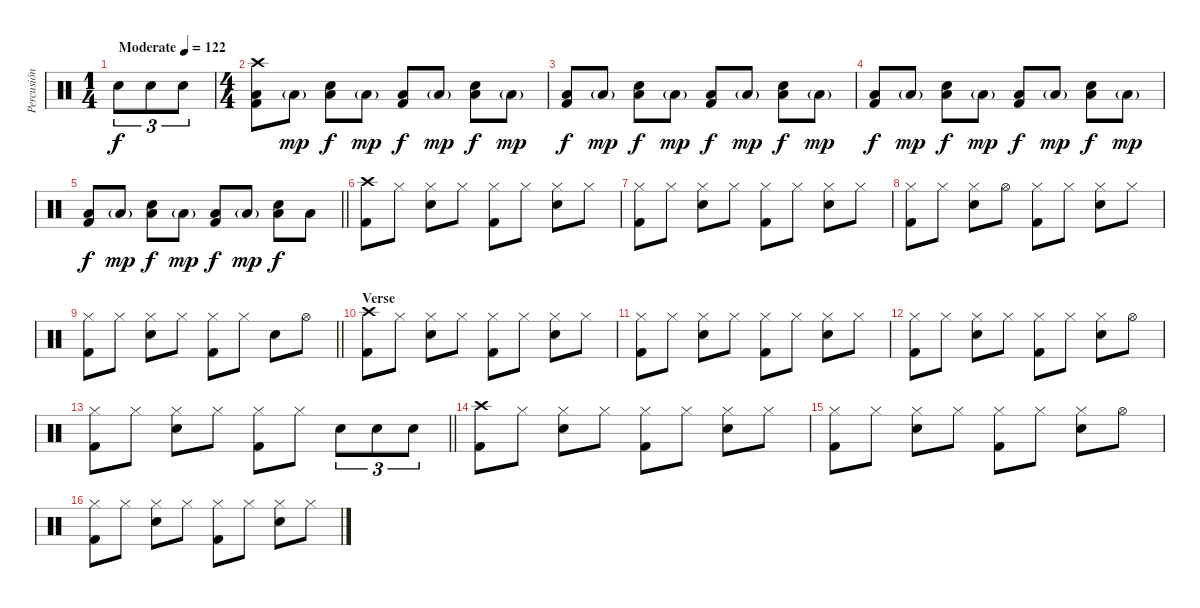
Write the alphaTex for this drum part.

\track ("Percusión" "Percusión") {instrument percussion}
\staff {score}
\articulation defaults
\ts (1 4)
\tempo (122 "Moderate")
\clef neutral
\ks c "Electric Snare (hit)".8{tu (3 2) dy f} "Electric Snare (hit)".8{tu (3 2)} "Electric Snare (hit)".8{tu (3 2)}
|
\ts (4 4)
("Crash high (hit)" "Low Floor Tom (hit)" "Kick (hit) 2").8 "Low Floor Tom (hit)"{g}.8{dy mp} ("Electric Snare (hit)" "Low Floor Tom (hit)").8{dy f} "Low Floor Tom (hit)"{g}.8{dy mp} ("Low Floor Tom (hit)" "Kick (hit) 2").8{dy f} "Low Floor Tom (hit)"{g}.8{dy mp} ("Electric Snare (hit)" "Low Floor Tom (hit)").8{dy f} "Low Floor Tom (hit)"{g}.8{dy mp} |
("Low Floor Tom (hit)" "Kick (hit) 2").8{dy f} "Low Floor Tom (hit)"{g}.8{dy mp} ("Electric Snare (hit)" "Low Floor Tom (hit)").8{dy f} "Low Floor Tom (hit)"{g}.8{dy mp} ("Low Floor Tom (hit)" "Kick (hit) 2").8{dy f} "Low Floor Tom (hit)"{g}.8{dy mp} ("Electric Snare (hit)" "Low Floor Tom (hit)").8{dy f} "Low Floor Tom (hit)"{g}.8{dy mp} |
("Low Floor Tom (hit)" "Kick (hit) 2").8{dy f} "Low Floor Tom (hit)"{g}.8{dy mp} ("Electric Snare (hit)" "Low Floor Tom (hit)").8{dy f} "Low Floor Tom (hit)"{g}.8{dy mp} ("Low Floor Tom (hit)" "Kick (hit) 2").8{dy f} "Low Floor Tom (hit)"{g}.8{dy mp} ("Electric Snare (hit)" "Low Floor Tom (hit)").8{dy f} "Low Floor Tom (hit)"{g}.8{dy mp} |
\barLineRight lightlight
("Low Floor Tom (hit)" "Kick (hit) 2").8{dy f} "Low Floor Tom (hit)"{g}.8{dy mp} ("Electric Snare (hit)" "Low Floor Tom (hit)").8{dy f} "Low Floor Tom (hit)"{g}.8{dy mp} ("Low Floor Tom (hit)" "Kick (hit) 2").8{dy f} "Low Floor Tom (hit)"{g}.8{dy mp} ("Electric Snare (hit)" "Low Floor Tom (hit)").8{dy f} "Low Floor Tom (hit)".8 |
("Crash high (hit)" "Kick (hit) 2").8 "Hi-Hat (closed)".8 ("Hi-Hat (closed)" "Electric Snare (hit)").8 "Hi-Hat (closed)".8 ("Hi-Hat (closed)" "Kick (hit) 2").8 "Hi-Hat (closed)".8 ("Hi-Hat (closed)" "Electric Snare (hit)").8 "Hi-Hat (closed)".8 |
("Hi-Hat (closed)" "Kick (hit) 2").8 "Hi-Hat (closed)".8 ("Hi-Hat (closed)" "Electric Snare (hit)").8 "Hi-Hat (closed)".8 ("Hi-Hat (closed)" "Kick (hit) 2").8 "Hi-Hat (closed)".8 ("Hi-Hat (closed)" "Electric Snare (hit)").8 "Hi-Hat (closed)".8 |
("Hi-Hat (closed)" "Kick (hit) 2").8 "Hi-Hat (closed)".8 ("Hi-Hat (closed)" "Electric Snare (hit)").8 "Hi-Hat (open)".8 ("Hi-Hat (closed)" "Kick (hit) 2").8 "Hi-Hat (closed)".8 ("Hi-Hat (closed)" "Electric Snare (hit)").8 "Hi-Hat (closed)".8 |
\barLineRight lightlight
("Hi-Hat (closed)" "Kick (hit) 2").8 "Hi-Hat (closed)".8 ("Hi-Hat (closed)" "Electric Snare (hit)").8 "Hi-Hat (closed)".8 ("Hi-Hat (closed)" "Kick (hit) 2").8 "Hi-Hat (closed)".8 "Electric Snare (hit)".8 "Hi-Hat (open)".8 |
\section ("" "Verse")
("Crash high (hit)" "Kick (hit) 2").8 "Hi-Hat (closed)".8 ("Hi-Hat (closed)" "Electric Snare (hit)").8 "Hi-Hat (closed)".8 ("Hi-Hat (closed)" "Kick (hit) 2").8 "Hi-Hat (closed)".8 ("Hi-Hat (closed)" "Electric Snare (hit)").8 "Hi-Hat (closed)".8 |
("Hi-Hat (closed)" "Kick (hit) 2").8 "Hi-Hat (closed)".8 ("Hi-Hat (closed)" "Electric Snare (hit)").8 "Hi-Hat (closed)".8 ("Hi-Hat (closed)" "Kick (hit) 2").8 "Hi-Hat (closed)".8 ("Hi-Hat (closed)" "Electric Snare (hit)").8 "Hi-Hat (closed)".8 |
("Hi-Hat (closed)" "Kick (hit) 2").8 "Hi-Hat (closed)".8 ("Hi-Hat (closed)" "Electric Snare (hit)").8 "Hi-Hat (closed)".8 ("Hi-Hat (closed)" "Kick (hit) 2").8 "Hi-Hat (closed)".8 ("Hi-Hat (closed)" "Electric Snare (hit)").8 "Hi-Hat (open)".8 |
\barLineRight lightlight
("Hi-Hat (closed)" "Kick (hit) 2").8 "Hi-Hat (closed)".8 ("Hi-Hat (closed)" "Electric Snare (hit)").8 "Hi-Hat (closed)".8 ("Hi-Hat (closed)" "Kick (hit) 2").8 "Hi-Hat (closed)".8 "Electric Snare (hit)".8{tu (3 2)} "Electric Snare (hit)".8{tu (3 2)} "Electric Snare (hit)".8{tu (3 2)} |
("Crash high (hit)" "Kick (hit) 2").8 "Hi-Hat (closed)".8 ("Hi-Hat (closed)" "Electric Snare (hit)").8 "Hi-Hat (closed)".8 ("Hi-Hat (closed)" "Kick (hit) 2").8 "Hi-Hat (closed)".8 ("Hi-Hat (closed)" "Electric Snare (hit)").8 "Hi-Hat (closed)".8 |
("Hi-Hat (closed)" "Kick (hit) 2").8 "Hi-Hat (closed)".8 ("Hi-Hat (closed)" "Electric Snare (hit)").8 "Hi-Hat (closed)".8 ("Hi-Hat (closed)" "Kick (hit) 2").8 "Hi-Hat (closed)".8 ("Hi-Hat (closed)" "Electric Snare (hit)").8 "Hi-Hat (open)".8 |
("Hi-Hat (closed)" "Kick (hit) 2").8 "Hi-Hat (closed)".8 ("Hi-Hat (closed)" "Electric Snare (hit)").8 "Hi-Hat (closed)".8 ("Hi-Hat (closed)" "Kick (hit) 2").8 "Hi-Hat (closed)".8 ("Hi-Hat (closed)" "Electric Snare (hit)").8 "Hi-Hat (closed)".8
